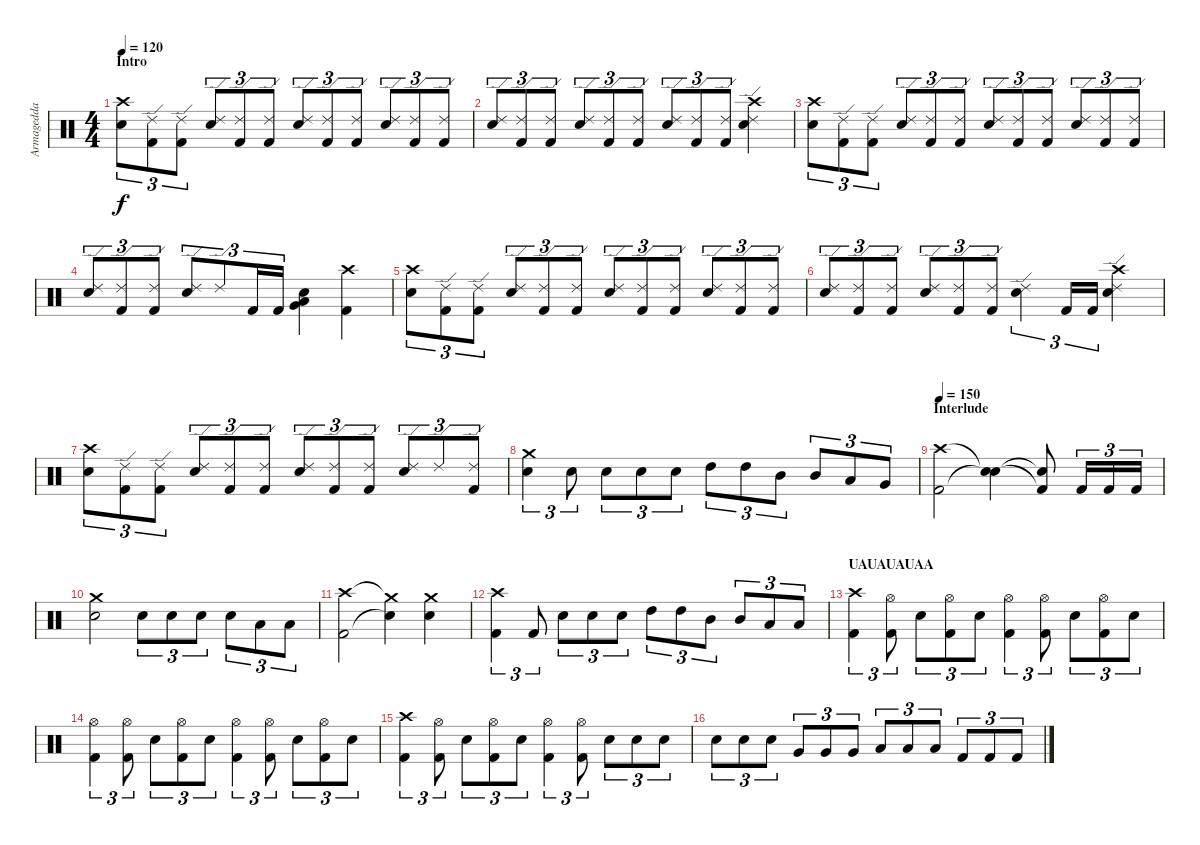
\track ("Armagedda" "Armagedda") {instrument percussion}
\staff {score}
\articulation defaults
\ts (4 4)
\section ("" "Intro")
\tempo 120
\tempo 145
\tempo 120
\clef neutral
\ks c
("Crash high (hit)" "Electric Snare (hit)").8{tu (3 2) dy f} ("Ride (edge) 2" "Kick (hit) 2").8{tu (3 2)} ("Ride (edge) 2" "Kick (hit) 2").8{tu (3 2)} ("Ride (edge) 2" "Electric Snare (hit)").8{tu (3 2)} ("Ride (edge) 2" "Kick (hit) 2").8{tu (3 2)} ("Ride (edge) 2" "Kick (hit) 2").8{tu (3 2)} ("Ride (edge) 2" "Electric Snare (hit)").8{tu (3 2)} ("Ride (edge) 2" "Kick (hit) 2").8{tu (3 2)} ("Ride (edge) 2" "Kick (hit) 2").8{tu (3 2)} ("Ride (edge) 2" "Electric Snare (hit)").8{tu (3 2)} ("Ride (edge) 2" "Kick (hit) 2").8{tu (3 2)} ("Ride (edge) 2" "Kick (hit) 2").8{tu (3 2)} |
("Ride (edge) 2" "Electric Snare (hit)").8{tu (3 2)} ("Ride (edge) 2" "Kick (hit) 2").8{tu (3 2)} ("Ride (edge) 2" "Kick (hit) 2").8{tu (3 2)} ("Ride (edge) 2" "Electric Snare (hit)").8{tu (3 2)} ("Ride (edge) 2" "Kick (hit) 2").8{tu (3 2)} ("Ride (edge) 2" "Kick (hit) 2").8{tu (3 2)} ("Ride (edge) 2" "Electric Snare (hit)").8{tu (3 2)} ("Ride (edge) 2" "Kick (hit) 2").8{tu (3 2)} ("Ride (edge) 2" "Kick (hit) 2").8{tu (3 2)} ("Crash high (hit)" "Ride (edge) 2" "Electric Snare (hit)").4 |
("Crash high (hit)" "Electric Snare (hit)").8{tu (3 2)} ("Ride (edge) 2" "Kick (hit) 2").8{tu (3 2)} ("Ride (edge) 2" "Kick (hit) 2").8{tu (3 2)} ("Ride (edge) 2" "Electric Snare (hit)").8{tu (3 2)} ("Ride (edge) 2" "Kick (hit) 2").8{tu (3 2)} ("Ride (edge) 2" "Kick (hit) 2").8{tu (3 2)} ("Ride (edge) 2" "Electric Snare (hit)").8{tu (3 2)} ("Ride (edge) 2" "Kick (hit) 2").8{tu (3 2)} ("Ride (edge) 2" "Kick (hit) 2").8{tu (3 2)} ("Ride (edge) 2" "Electric Snare (hit)").8{tu (3 2)} ("Ride (edge) 2" "Kick (hit) 2").8{tu (3 2)} ("Ride (edge) 2" "Kick (hit) 2").8{tu (3 2)} |
("Ride (edge) 2" "Electric Snare (hit)").8{tu (3 2)} ("Ride (edge) 2" "Kick (hit) 2").8{tu (3 2)} ("Ride (edge) 2" "Kick (hit) 2").8{tu (3 2)} ("Ride (edge) 2" "Electric Snare (hit)").8{tu (3 2)} "Ride (edge) 2".8{tu (3 2)} "Kick (hit) 2".16{tu (3 2)} "Kick (hit) 2".16{tu (3 2)} ("Very Low Tom (hit)" "Low Floor Tom (hit)" "Electric Snare (hit)").4 ("Crash high (hit)" "Kick (hit) 2").4 |
("Crash high (hit)" "Electric Snare (hit)").8{tu (3 2)} ("Ride (edge) 2" "Kick (hit) 2").8{tu (3 2)} ("Ride (edge) 2" "Kick (hit) 2").8{tu (3 2)} ("Ride (edge) 2" "Electric Snare (hit)").8{tu (3 2)} ("Ride (edge) 2" "Kick (hit) 2").8{tu (3 2)} ("Ride (edge) 2" "Kick (hit) 2").8{tu (3 2)} ("Ride (edge) 2" "Electric Snare (hit)").8{tu (3 2)} ("Ride (edge) 2" "Kick (hit) 2").8{tu (3 2)} ("Ride (edge) 2" "Kick (hit) 2").8{tu (3 2)} ("Ride (edge) 2" "Electric Snare (hit)").8{tu (3 2)} ("Ride (edge) 2" "Kick (hit) 2").8{tu (3 2)} ("Ride (edge) 2" "Kick (hit) 2").8{tu (3 2)} |
("Ride (edge) 2" "Electric Snare (hit)").8{tu (3 2)} ("Ride (edge) 2" "Kick (hit) 2").8{tu (3 2)} ("Ride (edge) 2" "Kick (hit) 2").8{tu (3 2)} ("Ride (edge) 2" "Electric Snare (hit)").8{tu (3 2)} ("Ride (edge) 2" "Kick (hit) 2").8{tu (3 2)} ("Ride (edge) 2" "Kick (hit) 2").8{tu (3 2)} ("Ride (edge) 2" "Electric Snare (hit)").4{tu (3 2)} "Kick (hit) 2".16{tu (3 2)} "Kick (hit) 2".16{tu (3 2)} ("Crash high (hit)" "Ride (edge) 2" "Electric Snare (hit)").4 |
("Crash high (hit)" "Electric Snare (hit)").8{tu (3 2)} ("Ride (edge) 2" "Kick (hit) 2").8{tu (3 2)} ("Ride (edge) 2" "Kick (hit) 2").8{tu (3 2)} ("Ride (edge) 2" "Electric Snare (hit)").8{tu (3 2)} ("Ride (edge) 2" "Kick (hit) 2").8{tu (3 2)} ("Ride (edge) 2" "Kick (hit) 2").8{tu (3 2)} ("Ride (edge) 2" "Electric Snare (hit)").8{tu (3 2)} ("Ride (edge) 2" "Kick (hit) 2").8{tu (3 2)} ("Ride (edge) 2" "Kick (hit) 2").8{tu (3 2)} ("Ride (edge) 2" "Electric Snare (hit)").8{tu (3 2)} "Ride (edge) 2".8{tu (3 2)} ("Ride (edge) 2" "Kick (hit) 2").8{tu (3 2)} |
("Crash medium (hit)" "Electric Snare (hit)").4{tu (3 2)} "Electric Snare (hit)".8{tu (3 2)} "Electric Snare (hit)".8{tu (3 2)} "Electric Snare (hit)".8{tu (3 2)} "Electric Snare (hit)".8{tu (3 2)} "High Tom (hit)".8{tu (3 2)} "High Tom (hit)".8{tu (3 2)} "Mid Tom (hit)".8{tu (3 2)} "Mid Tom (hit)".8{tu (3 2)} "Low Tom (hit)".8{tu (3 2)} "Very Low Tom (hit)".8{tu (3 2)} |
\section ("" "Interlude")
\tempo 150
("Crash high (hit)" "Kick (hit) 2").2 ("Snare (hit)"{t} "Snare (hit)"{t}).4 ("Snare (hit)"{t} "Kick (hit) 2"{t}).8 "Kick (hit) 2".16{tu (3 2)} "Kick (hit) 2".16{tu (3 2)} "Kick (hit) 2".16{tu (3 2)} |
("Crash medium (hit)" "Electric Snare (hit)").2 "Electric Snare (hit)".8{tu (3 2)} "Electric Snare (hit)".8{tu (3 2)} "Electric Snare (hit)".8{tu (3 2)} "Electric Snare (hit)".8{tu (3 2)} "Low Tom (hit)".8{tu (3 2)} "Low Tom (hit)".8{tu (3 2)} |
("Crash high (hit)" "Kick (hit) 2").2 ("Crash medium (hit)"{t} "Snare (hit)"{t}).4 ("Crash medium (hit)" "Electric Snare (hit)").4 |
("Crash high (hit)" "Kick (hit) 2").4{tu (3 2)} "Kick (hit) 2".8{tu (3 2)} "Electric Snare (hit)".8{tu (3 2)} "Electric Snare (hit)".8{tu (3 2)} "Electric Snare (hit)".8{tu (3 2)} "High Tom (hit)".8{tu (3 2)} "High Tom (hit)".8{tu (3 2)} "Mid Tom (hit)".8{tu (3 2)} "Mid Tom (hit)".8{tu (3 2)} "Low Tom (hit)".8{tu (3 2)} "Low Tom (hit)".8{tu (3 2)} |
\section ("" "UAUAUAUAA")
("Crash high (hit)" "Kick (hit) 2").4{tu (3 2)} ("Hi-Hat (open)" "Kick (hit) 2").8{tu (3 2)} "Electric Snare (hit)".8{tu (3 2)} ("Hi-Hat (open)" "Kick (hit) 2").8{tu (3 2)} "Electric Snare (hit)".8{tu (3 2)} ("Hi-Hat (open)" "Kick (hit) 2").4{tu (3 2)} ("Hi-Hat (open)" "Kick (hit) 2").8{tu (3 2)} "Electric Snare (hit)".8{tu (3 2)} ("Hi-Hat (open)" "Kick (hit) 2").8{tu (3 2)} "Electric Snare (hit)".8{tu (3 2)} |
("Hi-Hat (open)" "Kick (hit) 2").4{tu (3 2)} ("Hi-Hat (open)" "Kick (hit) 2").8{tu (3 2)} "Electric Snare (hit)".8{tu (3 2)} ("Hi-Hat (open)" "Kick (hit) 2").8{tu (3 2)} "Electric Snare (hit)".8{tu (3 2)} ("Hi-Hat (open)" "Kick (hit) 2").4{tu (3 2)} ("Hi-Hat (open)" "Kick (hit) 2").8{tu (3 2)} "Electric Snare (hit)".8{tu (3 2)} ("Hi-Hat (open)" "Kick (hit) 2").8{tu (3 2)} "Electric Snare (hit)".8{tu (3 2)} |
("Crash high (hit)" "Kick (hit) 2").4{tu (3 2)} ("Hi-Hat (open)" "Kick (hit) 2").8{tu (3 2)} "Electric Snare (hit)".8{tu (3 2)} ("Hi-Hat (open)" "Kick (hit) 2").8{tu (3 2)} "Electric Snare (hit)".8{tu (3 2)} ("Hi-Hat (open)" "Kick (hit) 2").4{tu (3 2)} ("Hi-Hat (open)" "Kick (hit) 2").8{tu (3 2)} "Electric Snare (hit)".8{tu (3 2)} "Electric Snare (hit)".8{tu (3 2)} "Electric Snare (hit)".8{tu (3 2)} |
"Electric Snare (hit)".8{tu (3 2)} "Electric Snare (hit)".8{tu (3 2)} "Electric Snare (hit)".8{tu (3 2)} "Very Low Tom (hit)".8{tu (3 2)} "Very Low Tom (hit)".8{tu (3 2)} "Very Low Tom (hit)".8{tu (3 2)} "Low Tom (hit)".8{tu (3 2)} "Low Tom (hit)".8{tu (3 2)} "Low Tom (hit)".8{tu (3 2)} "Kick (hit) 2".8{tu (3 2)} "Kick (hit) 2".8{tu (3 2)} "Kick (hit) 2".8{tu (3 2)}
